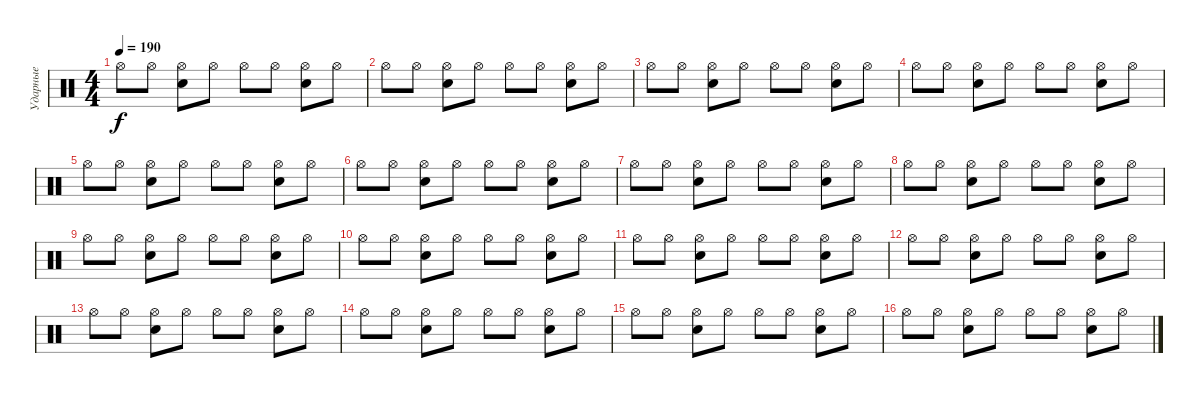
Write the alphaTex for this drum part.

\track ("Ударные" "Ударные") {instrument percussion}
\staff {score}
\articulation defaults
\ts (4 4)
\tempo 190
\clef neutral
\ks c "Hi-Hat (open)".8{dy f} "Hi-Hat (open)".8
("Hi-Hat (open)" "Electric Snare (hit)").8 "Hi-Hat (open)".8 "Hi-Hat (open)".8 "Hi-Hat (open)".8 ("Hi-Hat (open)" "Electric Snare (hit)").8 "Hi-Hat (open)".8 |
"Hi-Hat (open)".8 "Hi-Hat (open)".8 ("Hi-Hat (open)" "Electric Snare (hit)").8 "Hi-Hat (open)".8 "Hi-Hat (open)".8 "Hi-Hat (open)".8 ("Hi-Hat (open)" "Electric Snare (hit)").8 "Hi-Hat (open)".8 |
"Hi-Hat (open)".8 "Hi-Hat (open)".8 ("Hi-Hat (open)" "Electric Snare (hit)").8 "Hi-Hat (open)".8 "Hi-Hat (open)".8 "Hi-Hat (open)".8 ("Hi-Hat (open)" "Electric Snare (hit)").8 "Hi-Hat (open)".8 |
"Hi-Hat (open)".8 "Hi-Hat (open)".8 ("Hi-Hat (open)" "Electric Snare (hit)").8 "Hi-Hat (open)".8 "Hi-Hat (open)".8 "Hi-Hat (open)".8 ("Hi-Hat (open)" "Electric Snare (hit)").8 "Hi-Hat (open)".8 |
"Hi-Hat (open)".8 "Hi-Hat (open)".8 ("Hi-Hat (open)" "Electric Snare (hit)").8 "Hi-Hat (open)".8 "Hi-Hat (open)".8 "Hi-Hat (open)".8 ("Hi-Hat (open)" "Electric Snare (hit)").8 "Hi-Hat (open)".8 |
"Hi-Hat (open)".8 "Hi-Hat (open)".8 ("Hi-Hat (open)" "Electric Snare (hit)").8 "Hi-Hat (open)".8 "Hi-Hat (open)".8 "Hi-Hat (open)".8 ("Hi-Hat (open)" "Electric Snare (hit)").8 "Hi-Hat (open)".8 |
"Hi-Hat (open)".8 "Hi-Hat (open)".8 ("Hi-Hat (open)" "Electric Snare (hit)").8 "Hi-Hat (open)".8 "Hi-Hat (open)".8 "Hi-Hat (open)".8 ("Hi-Hat (open)" "Electric Snare (hit)").8 "Hi-Hat (open)".8 |
"Hi-Hat (open)".8 "Hi-Hat (open)".8 ("Hi-Hat (open)" "Electric Snare (hit)").8 "Hi-Hat (open)".8 "Hi-Hat (open)".8 "Hi-Hat (open)".8 ("Hi-Hat (open)" "Electric Snare (hit)").8 "Hi-Hat (open)".8 |
"Hi-Hat (open)".8 "Hi-Hat (open)".8 ("Hi-Hat (open)" "Electric Snare (hit)").8 "Hi-Hat (open)".8 "Hi-Hat (open)".8 "Hi-Hat (open)".8 ("Hi-Hat (open)" "Electric Snare (hit)").8 "Hi-Hat (open)".8 |
"Hi-Hat (open)".8 "Hi-Hat (open)".8 ("Hi-Hat (open)" "Electric Snare (hit)").8 "Hi-Hat (open)".8 "Hi-Hat (open)".8 "Hi-Hat (open)".8 ("Hi-Hat (open)" "Electric Snare (hit)").8 "Hi-Hat (open)".8 |
"Hi-Hat (open)".8 "Hi-Hat (open)".8 ("Hi-Hat (open)" "Electric Snare (hit)").8 "Hi-Hat (open)".8 "Hi-Hat (open)".8 "Hi-Hat (open)".8 ("Hi-Hat (open)" "Electric Snare (hit)").8 "Hi-Hat (open)".8 |
"Hi-Hat (open)".8 "Hi-Hat (open)".8 ("Hi-Hat (open)" "Electric Snare (hit)").8 "Hi-Hat (open)".8 "Hi-Hat (open)".8 "Hi-Hat (open)".8 ("Hi-Hat (open)" "Electric Snare (hit)").8 "Hi-Hat (open)".8 |
"Hi-Hat (open)".8 "Hi-Hat (open)".8 ("Hi-Hat (open)" "Electric Snare (hit)").8 "Hi-Hat (open)".8 "Hi-Hat (open)".8 "Hi-Hat (open)".8 ("Hi-Hat (open)" "Electric Snare (hit)").8 "Hi-Hat (open)".8 |
"Hi-Hat (open)".8 "Hi-Hat (open)".8 ("Hi-Hat (open)" "Electric Snare (hit)").8 "Hi-Hat (open)".8 "Hi-Hat (open)".8 "Hi-Hat (open)".8 ("Hi-Hat (open)" "Electric Snare (hit)").8 "Hi-Hat (open)".8 |
"Hi-Hat (open)".8 "Hi-Hat (open)".8 ("Hi-Hat (open)" "Electric Snare (hit)").8 "Hi-Hat (open)".8 "Hi-Hat (open)".8 "Hi-Hat (open)".8 ("Hi-Hat (open)" "Electric Snare (hit)").8 "Hi-Hat (open)".8 |
"Hi-Hat (open)".8 "Hi-Hat (open)".8 ("Hi-Hat (open)" "Electric Snare (hit)").8 "Hi-Hat (open)".8 "Hi-Hat (open)".8 "Hi-Hat (open)".8 ("Hi-Hat (open)" "Electric Snare (hit)").8 "Hi-Hat (open)".8
